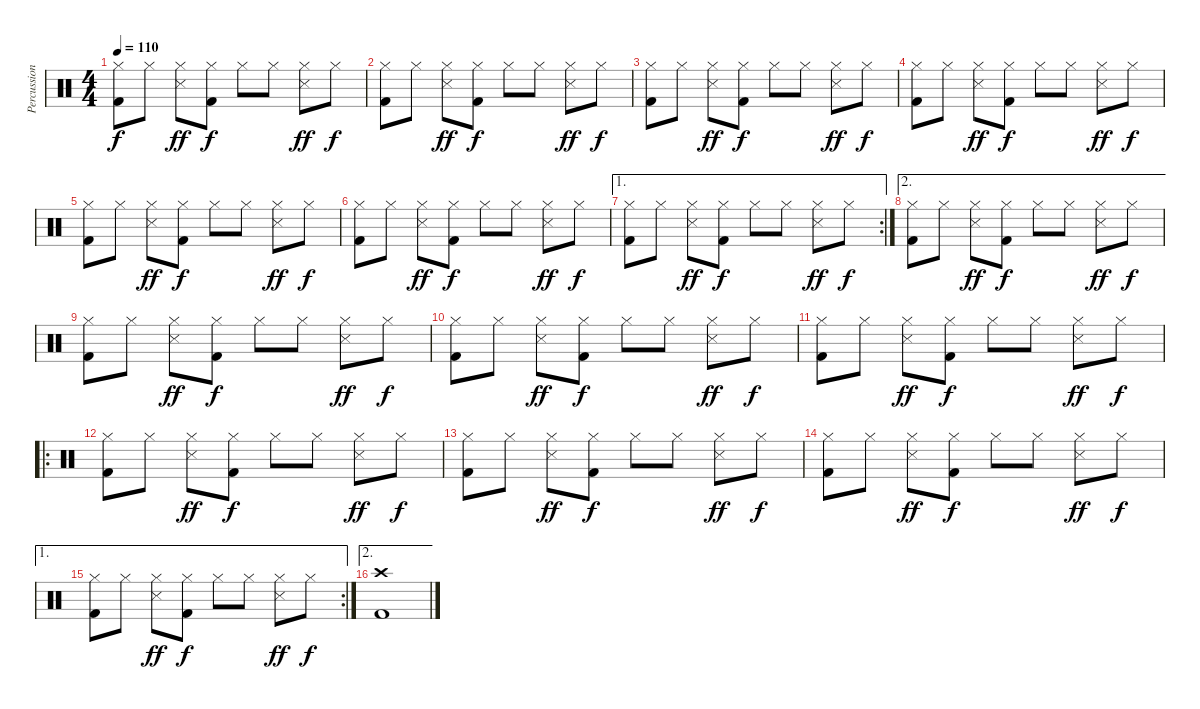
\track ("Percussion" "Percussion") {instrument percussion}
\staff {score}
\articulation defaults
\ts (4 4)
\tempo 110
\clef neutral
\ks c
("Hi-Hat (closed)" "Kick (hit) 2").8{dy f} "Hi-Hat (closed)".8 ("Hi-Hat (closed)" "Snare (side stick) 3").8{dy ff} ("Hi-Hat (closed)" "Kick (hit) 2").8{dy f} "Hi-Hat (closed)".8 "Hi-Hat (closed)".8 ("Hi-Hat (closed)" "Snare (side stick) 3").8{dy ff} "Hi-Hat (closed)".8{dy f} |
("Hi-Hat (closed)" "Kick (hit) 2").8 "Hi-Hat (closed)".8 ("Hi-Hat (closed)" "Snare (side stick) 3").8{dy ff} ("Hi-Hat (closed)" "Kick (hit) 2").8{dy f} "Hi-Hat (closed)".8 "Hi-Hat (closed)".8 ("Hi-Hat (closed)" "Snare (side stick) 3").8{dy ff} "Hi-Hat (closed)".8{dy f} |
("Hi-Hat (closed)" "Kick (hit) 2").8 "Hi-Hat (closed)".8 ("Hi-Hat (closed)" "Snare (side stick) 3").8{dy ff} ("Hi-Hat (closed)" "Kick (hit) 2").8{dy f} "Hi-Hat (closed)".8 "Hi-Hat (closed)".8 ("Hi-Hat (closed)" "Snare (side stick) 3").8{dy ff} "Hi-Hat (closed)".8{dy f} |
("Hi-Hat (closed)" "Kick (hit) 2").8 "Hi-Hat (closed)".8 ("Hi-Hat (closed)" "Snare (side stick) 3").8{dy ff} ("Hi-Hat (closed)" "Kick (hit) 2").8{dy f} "Hi-Hat (closed)".8 "Hi-Hat (closed)".8 ("Hi-Hat (closed)" "Snare (side stick) 3").8{dy ff} "Hi-Hat (closed)".8{dy f} |
("Hi-Hat (closed)" "Kick (hit) 2").8 "Hi-Hat (closed)".8 ("Hi-Hat (closed)" "Snare (side stick) 3").8{dy ff} ("Hi-Hat (closed)" "Kick (hit) 2").8{dy f} "Hi-Hat (closed)".8 "Hi-Hat (closed)".8 ("Hi-Hat (closed)" "Snare (side stick) 3").8{dy ff} "Hi-Hat (closed)".8{dy f} |
("Hi-Hat (closed)" "Kick (hit) 2").8 "Hi-Hat (closed)".8 ("Hi-Hat (closed)" "Snare (side stick) 3").8{dy ff} ("Hi-Hat (closed)" "Kick (hit) 2").8{dy f} "Hi-Hat (closed)".8 "Hi-Hat (closed)".8 ("Hi-Hat (closed)" "Snare (side stick) 3").8{dy ff} "Hi-Hat (closed)".8{dy f} |
\ae 1
\rc 2
("Hi-Hat (closed)" "Kick (hit) 2").8 "Hi-Hat (closed)".8 ("Hi-Hat (closed)" "Snare (side stick) 3").8{dy ff} ("Hi-Hat (closed)" "Kick (hit) 2").8{dy f} "Hi-Hat (closed)".8 "Hi-Hat (closed)".8 ("Hi-Hat (closed)" "Snare (side stick) 3").8{dy ff} "Hi-Hat (closed)".8{dy f} |
\ae 2
("Hi-Hat (closed)" "Kick (hit) 2").8 "Hi-Hat (closed)".8 ("Hi-Hat (closed)" "Snare (side stick) 3").8{dy ff} ("Hi-Hat (closed)" "Kick (hit) 2").8{dy f} "Hi-Hat (closed)".8 "Hi-Hat (closed)".8 ("Hi-Hat (closed)" "Snare (side stick) 3").8{dy ff} "Hi-Hat (closed)".8{dy f} |
("Hi-Hat (closed)" "Kick (hit) 2").8 "Hi-Hat (closed)".8 ("Hi-Hat (closed)" "Snare (side stick) 3").8{dy ff} ("Hi-Hat (closed)" "Kick (hit) 2").8{dy f} "Hi-Hat (closed)".8 "Hi-Hat (closed)".8 ("Hi-Hat (closed)" "Snare (side stick) 3").8{dy ff} "Hi-Hat (closed)".8{dy f} |
("Hi-Hat (closed)" "Kick (hit) 2").8 "Hi-Hat (closed)".8 ("Hi-Hat (closed)" "Snare (side stick) 3").8{dy ff} ("Hi-Hat (closed)" "Kick (hit) 2").8{dy f} "Hi-Hat (closed)".8 "Hi-Hat (closed)".8 ("Hi-Hat (closed)" "Snare (side stick) 3").8{dy ff} "Hi-Hat (closed)".8{dy f} |
("Hi-Hat (closed)" "Kick (hit) 2").8 "Hi-Hat (closed)".8 ("Hi-Hat (closed)" "Snare (side stick) 3").8{dy ff} ("Hi-Hat (closed)" "Kick (hit) 2").8{dy f} "Hi-Hat (closed)".8 "Hi-Hat (closed)".8 ("Hi-Hat (closed)" "Snare (side stick) 3").8{dy ff} "Hi-Hat (closed)".8{dy f} |
\ro
("Hi-Hat (closed)" "Kick (hit) 2").8 "Hi-Hat (closed)".8 ("Hi-Hat (closed)" "Snare (side stick) 3").8{dy ff} ("Hi-Hat (closed)" "Kick (hit) 2").8{dy f} "Hi-Hat (closed)".8 "Hi-Hat (closed)".8 ("Hi-Hat (closed)" "Snare (side stick) 3").8{dy ff} "Hi-Hat (closed)".8{dy f} |
("Hi-Hat (closed)" "Kick (hit) 2").8 "Hi-Hat (closed)".8 ("Hi-Hat (closed)" "Snare (side stick) 3").8{dy ff} ("Hi-Hat (closed)" "Kick (hit) 2").8{dy f} "Hi-Hat (closed)".8 "Hi-Hat (closed)".8 ("Hi-Hat (closed)" "Snare (side stick) 3").8{dy ff} "Hi-Hat (closed)".8{dy f} |
("Hi-Hat (closed)" "Kick (hit) 2").8 "Hi-Hat (closed)".8 ("Hi-Hat (closed)" "Snare (side stick) 3").8{dy ff} ("Hi-Hat (closed)" "Kick (hit) 2").8{dy f} "Hi-Hat (closed)".8 "Hi-Hat (closed)".8 ("Hi-Hat (closed)" "Snare (side stick) 3").8{dy ff} "Hi-Hat (closed)".8{dy f} |
\ae 1
\rc 2
("Hi-Hat (closed)" "Kick (hit) 2").8 "Hi-Hat (closed)".8 ("Hi-Hat (closed)" "Snare (side stick) 3").8{dy ff} ("Hi-Hat (closed)" "Kick (hit) 2").8{dy f} "Hi-Hat (closed)".8 "Hi-Hat (closed)".8 ("Hi-Hat (closed)" "Snare (side stick) 3").8{dy ff} "Hi-Hat (closed)".8{dy f} |
\ae 2
("Crash high (hit)" "Kick (hit) 2").1
